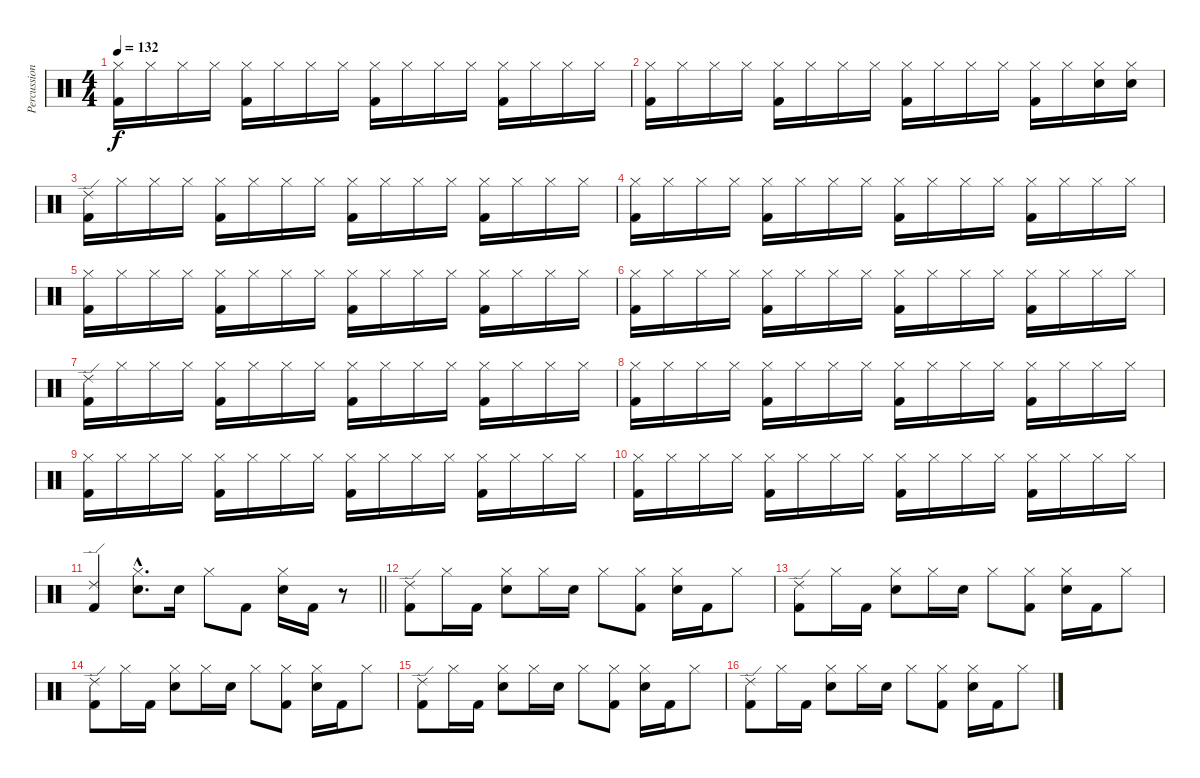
\track ("Percussions" "Percussion") {instrument percussion}
\staff {score}
\articulation defaults
\ts (4 4)
\tempo 132
\clef neutral
\ks c
("Hi-Hat (closed)" "Kick (hit) 2").16{dy f} "Hi-Hat (closed)".16 "Hi-Hat (closed)".16 "Hi-Hat (closed)".16 ("Hi-Hat (closed)" "Kick (hit) 2").16 "Hi-Hat (closed)".16 "Hi-Hat (closed)".16 "Hi-Hat (closed)".16 ("Hi-Hat (closed)" "Kick (hit) 2").16 "Hi-Hat (closed)".16 "Hi-Hat (closed)".16 "Hi-Hat (closed)".16 ("Hi-Hat (closed)" "Kick (hit) 2").16 "Hi-Hat (closed)".16 "Hi-Hat (closed)".16 "Hi-Hat (closed)".16 |
("Hi-Hat (closed)" "Kick (hit) 2").16 "Hi-Hat (closed)".16 "Hi-Hat (closed)".16 "Hi-Hat (closed)".16 ("Hi-Hat (closed)" "Kick (hit) 2").16 "Hi-Hat (closed)".16 "Hi-Hat (closed)".16 "Hi-Hat (closed)".16 ("Hi-Hat (closed)" "Kick (hit) 2").16 "Hi-Hat (closed)".16 "Hi-Hat (closed)".16 "Hi-Hat (closed)".16 ("Hi-Hat (closed)" "Kick (hit) 2").16 "Hi-Hat (closed)".16 ("Hi-Hat (closed)" "Snare (hit) 2").16 ("Hi-Hat (closed)" "Snare (hit) 2").16 |
("Ride (edge) 2" "Kick (hit) 2").16 "Hi-Hat (closed)".16 "Hi-Hat (closed)".16 "Hi-Hat (closed)".16 ("Hi-Hat (closed)" "Kick (hit) 2").16 "Hi-Hat (closed)".16 "Hi-Hat (closed)".16 "Hi-Hat (closed)".16 ("Hi-Hat (closed)" "Kick (hit) 2").16 "Hi-Hat (closed)".16 "Hi-Hat (closed)".16 "Hi-Hat (closed)".16 ("Hi-Hat (closed)" "Kick (hit) 2").16 "Hi-Hat (closed)".16 "Hi-Hat (closed)".16 "Hi-Hat (closed)".16 |
("Hi-Hat (closed)" "Kick (hit) 2").16 "Hi-Hat (closed)".16 "Hi-Hat (closed)".16 "Hi-Hat (closed)".16 ("Hi-Hat (closed)" "Kick (hit) 2").16 "Hi-Hat (closed)".16 "Hi-Hat (closed)".16 "Hi-Hat (closed)".16 ("Hi-Hat (closed)" "Kick (hit) 2").16 "Hi-Hat (closed)".16 "Hi-Hat (closed)".16 "Hi-Hat (closed)".16 ("Hi-Hat (closed)" "Kick (hit) 2").16 "Hi-Hat (closed)".16 "Hi-Hat (closed)".16 "Hi-Hat (closed)".16 |
("Hi-Hat (closed)" "Kick (hit) 2").16 "Hi-Hat (closed)".16 "Hi-Hat (closed)".16 "Hi-Hat (closed)".16 ("Hi-Hat (closed)" "Kick (hit) 2").16 "Hi-Hat (closed)".16 "Hi-Hat (closed)".16 "Hi-Hat (closed)".16 ("Hi-Hat (closed)" "Kick (hit) 2").16 "Hi-Hat (closed)".16 "Hi-Hat (closed)".16 "Hi-Hat (closed)".16 ("Hi-Hat (closed)" "Kick (hit) 2").16 "Hi-Hat (closed)".16 "Hi-Hat (closed)".16 "Hi-Hat (closed)".16 |
("Hi-Hat (closed)" "Kick (hit) 2").16 "Hi-Hat (closed)".16 "Hi-Hat (closed)".16 "Hi-Hat (closed)".16 ("Hi-Hat (closed)" "Kick (hit) 2").16 "Hi-Hat (closed)".16 "Hi-Hat (closed)".16 "Hi-Hat (closed)".16 ("Hi-Hat (closed)" "Kick (hit) 2").16 "Hi-Hat (closed)".16 "Hi-Hat (closed)".16 "Hi-Hat (closed)".16 ("Hi-Hat (closed)" "Kick (hit) 2").16 "Hi-Hat (closed)".16 "Hi-Hat (closed)".16 "Hi-Hat (closed)".16 |
("Ride (edge) 2" "Kick (hit) 2").16 "Hi-Hat (closed)".16 "Hi-Hat (closed)".16 "Hi-Hat (closed)".16 ("Hi-Hat (closed)" "Kick (hit) 2").16 "Hi-Hat (closed)".16 "Hi-Hat (closed)".16 "Hi-Hat (closed)".16 ("Hi-Hat (closed)" "Kick (hit) 2").16 "Hi-Hat (closed)".16 "Hi-Hat (closed)".16 "Hi-Hat (closed)".16 ("Hi-Hat (closed)" "Kick (hit) 2").16 "Hi-Hat (closed)".16 "Hi-Hat (closed)".16 "Hi-Hat (closed)".16 |
("Hi-Hat (closed)" "Kick (hit) 2").16 "Hi-Hat (closed)".16 "Hi-Hat (closed)".16 "Hi-Hat (closed)".16 ("Hi-Hat (closed)" "Kick (hit) 2").16 "Hi-Hat (closed)".16 "Hi-Hat (closed)".16 "Hi-Hat (closed)".16 ("Hi-Hat (closed)" "Kick (hit) 2").16 "Hi-Hat (closed)".16 "Hi-Hat (closed)".16 "Hi-Hat (closed)".16 ("Hi-Hat (closed)" "Kick (hit) 2").16 "Hi-Hat (closed)".16 "Hi-Hat (closed)".16 "Hi-Hat (closed)".16 |
("Hi-Hat (closed)" "Kick (hit) 2").16 "Hi-Hat (closed)".16 "Hi-Hat (closed)".16 "Hi-Hat (closed)".16 ("Hi-Hat (closed)" "Kick (hit) 2").16 "Hi-Hat (closed)".16 "Hi-Hat (closed)".16 "Hi-Hat (closed)".16 ("Hi-Hat (closed)" "Kick (hit) 2").16 "Hi-Hat (closed)".16 "Hi-Hat (closed)".16 "Hi-Hat (closed)".16 ("Hi-Hat (closed)" "Kick (hit) 2").16 "Hi-Hat (closed)".16 "Hi-Hat (closed)".16 "Hi-Hat (closed)".16 |
("Hi-Hat (closed)" "Kick (hit) 2").16 "Hi-Hat (closed)".16 "Hi-Hat (closed)".16 "Hi-Hat (closed)".16 ("Hi-Hat (closed)" "Kick (hit) 2").16 "Hi-Hat (closed)".16 "Hi-Hat (closed)".16 "Hi-Hat (closed)".16 ("Hi-Hat (closed)" "Kick (hit) 2").16 "Hi-Hat (closed)".16 "Hi-Hat (closed)".16 "Hi-Hat (closed)".16 ("Hi-Hat (closed)" "Kick (hit) 2").16 "Hi-Hat (closed)".16 "Hi-Hat (closed)".16 "Hi-Hat (closed)".16 |
\barLineRight lightlight
("Ride (edge) 2" "Kick (hit) 2").4 ("Hi-Hat (closed)"{hac} "Snare (hit) 2"{hac}).8{d} "Snare (hit) 2".16 "Hi-Hat (closed)".8 "Kick (hit) 2".8 ("Hi-Hat (closed)" "Snare (hit) 2").16 "Kick (hit) 2".16 r.8 |
("Ride (edge) 2" "Kick (hit) 2").8 "Hi-Hat (closed)".16 "Kick (hit) 2".16 ("Hi-Hat (closed)" "Snare (hit) 2").8 "Hi-Hat (closed)".16 "Snare (hit) 2".16 "Hi-Hat (closed)".8 ("Hi-Hat (closed)" "Kick (hit) 2").8 ("Hi-Hat (closed)" "Snare (hit) 2").16 "Kick (hit) 2".16 "Hi-Hat (closed)".8 |
("Ride (edge) 2" "Kick (hit) 2").8 "Hi-Hat (closed)".16 "Kick (hit) 2".16 ("Hi-Hat (closed)" "Snare (hit) 2").8 "Hi-Hat (closed)".16 "Snare (hit) 2".16 "Hi-Hat (closed)".8 ("Hi-Hat (closed)" "Kick (hit) 2").8 ("Hi-Hat (closed)" "Snare (hit) 2").16 "Kick (hit) 2".16 "Hi-Hat (closed)".8 |
("Ride (edge) 2" "Kick (hit) 2").8 "Hi-Hat (closed)".16 "Kick (hit) 2".16 ("Hi-Hat (closed)" "Snare (hit) 2").8 "Hi-Hat (closed)".16 "Snare (hit) 2".16 "Hi-Hat (closed)".8 ("Hi-Hat (closed)" "Kick (hit) 2").8 ("Hi-Hat (closed)" "Snare (hit) 2").16 "Kick (hit) 2".16 "Hi-Hat (closed)".8 |
("Ride (edge) 2" "Kick (hit) 2").8 "Hi-Hat (closed)".16 "Kick (hit) 2".16 ("Hi-Hat (closed)" "Snare (hit) 2").8 "Hi-Hat (closed)".16 "Snare (hit) 2".16 "Hi-Hat (closed)".8 ("Hi-Hat (closed)" "Kick (hit) 2").8 ("Hi-Hat (closed)" "Snare (hit) 2").16 "Kick (hit) 2".16 "Hi-Hat (closed)".8 |
("Ride (edge) 2" "Kick (hit) 2").8 "Hi-Hat (closed)".16 "Kick (hit) 2".16 ("Hi-Hat (closed)" "Snare (hit) 2").8 "Hi-Hat (closed)".16 "Snare (hit) 2".16 "Hi-Hat (closed)".8 ("Hi-Hat (closed)" "Kick (hit) 2").8 ("Hi-Hat (closed)" "Snare (hit) 2").16 "Kick (hit) 2".16 "Hi-Hat (closed)".8
